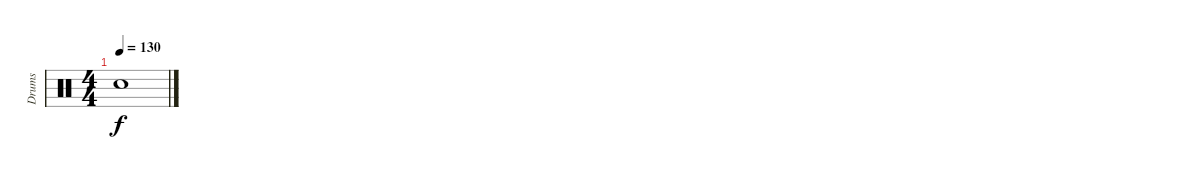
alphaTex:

\track ("Drums" "Drums") {instrument percussion}
\staff {score}
\articulation defaults
\ts (4 4)
\tempo 130
\clef neutral
\ks c "Snare (hit)"{t}.1{dy f}
